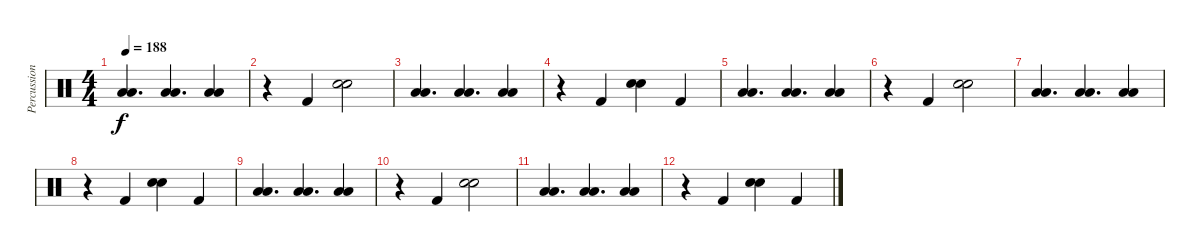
\track ("Percussion" "Percussion") {instrument percussion}
\staff {score}
\articulation defaults
\ts (4 4)
\tempo 188
\clef neutral
\ks c
("Low Tom (hit)" "Low Tom (hit)").4{d bu 120 dy f} ("Low Tom (hit)" "Low Tom (hit)").4{d bu 120} ("Low Tom (hit)" "Low Tom (hit)").4{bu 120} |
r.4 "Kick (hit) 2".4 ("Electric Snare (hit)" "Electric Snare (hit)").2{bu 120} |
("Low Tom (hit)" "Low Tom (hit)").4{d bu 120} ("Low Tom (hit)" "Low Tom (hit)").4{d bu 120} ("Low Tom (hit)" "Low Tom (hit)").4{bu 120} |
r.4 "Kick (hit) 2".4 ("Electric Snare (hit)" "Electric Snare (hit)").4{bu 120} "Kick (hit) 2".4 |
("Low Tom (hit)" "Low Tom (hit)").4{d bu 120} ("Low Tom (hit)" "Low Tom (hit)").4{d bu 120} ("Low Tom (hit)" "Low Tom (hit)").4{bu 120} |
r.4 "Kick (hit) 2".4 ("Electric Snare (hit)" "Electric Snare (hit)").2{bu 120} |
("Low Tom (hit)" "Low Tom (hit)").4{d bu 120} ("Low Tom (hit)" "Low Tom (hit)").4{d bu 120} ("Low Tom (hit)" "Low Tom (hit)").4{bu 120} |
r.4 "Kick (hit) 2".4 ("Electric Snare (hit)" "Electric Snare (hit)").4{bu 120} "Kick (hit) 2".4 |
("Low Tom (hit)" "Low Tom (hit)").4{d bu 120} ("Low Tom (hit)" "Low Tom (hit)").4{d bu 120} ("Low Tom (hit)" "Low Tom (hit)").4{bu 120} |
r.4 "Kick (hit) 2".4 ("Electric Snare (hit)" "Electric Snare (hit)").2{bu 120} |
("Low Tom (hit)" "Low Tom (hit)").4{d bu 120} ("Low Tom (hit)" "Low Tom (hit)").4{d bu 120} ("Low Tom (hit)" "Low Tom (hit)").4{bu 120} |
r.4 "Kick (hit) 2".4 ("Electric Snare (hit)" "Electric Snare (hit)").4{bu 120} "Kick (hit) 2".4
